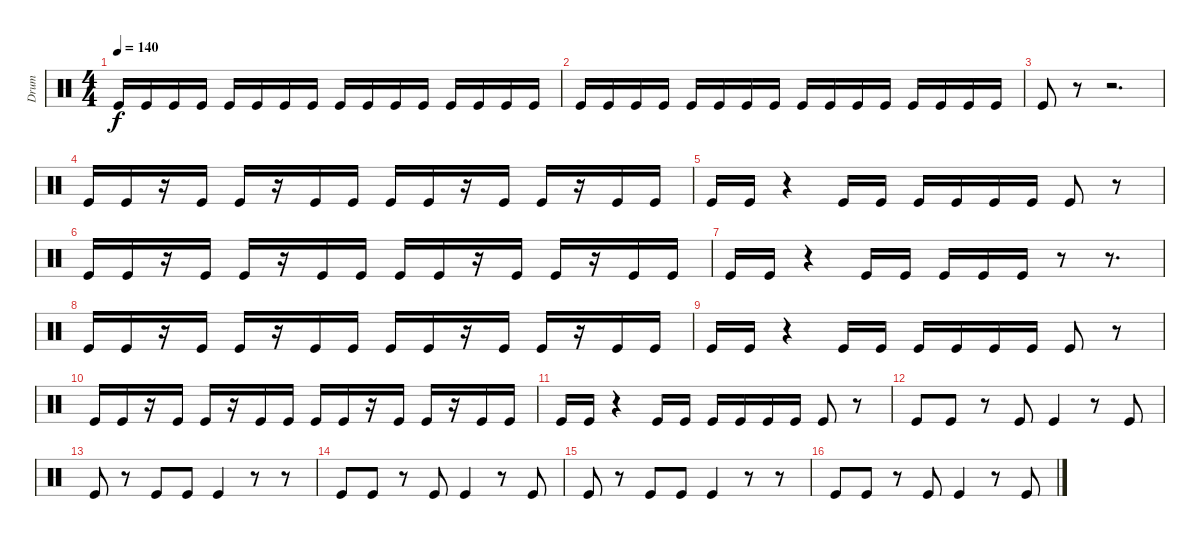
\track ("Drum" "Drum") {instrument percussion}
\staff {score}
\articulation defaults
\ts (4 4)
\tempo 140
\clef neutral
\ks c "Kick (hit)".16{dy f} "Kick (hit)".16 "Kick (hit)".16 "Kick (hit)".16 "Kick (hit)".16 "Kick (hit)".16 "Kick (hit)".16 "Kick (hit)".16 "Kick (hit)".16 "Kick (hit)".16 "Kick (hit)".16 "Kick (hit)".16 "Kick (hit)".16 "Kick (hit)".16 "Kick (hit)".16 "Kick (hit)".16
|
"Kick (hit)".16 "Kick (hit)".16 "Kick (hit)".16 "Kick (hit)".16 "Kick (hit)".16 "Kick (hit)".16 "Kick (hit)".16 "Kick (hit)".16 "Kick (hit)".16 "Kick (hit)".16 "Kick (hit)".16 "Kick (hit)".16 "Kick (hit)".16 "Kick (hit)".16 "Kick (hit)".16 "Kick (hit)".16 |
"Kick (hit)".8 r.8 r.2{d} |
"Kick (hit)".16 "Kick (hit)".16 r.16 "Kick (hit)".16 "Kick (hit)".16 r.16 "Kick (hit)".16 "Kick (hit)".16 "Kick (hit)".16 "Kick (hit)".16 r.16 "Kick (hit)".16 "Kick (hit)".16 r.16 "Kick (hit)".16 "Kick (hit)".16 |
"Kick (hit)".16 "Kick (hit)".16 r.4 "Kick (hit)".16 "Kick (hit)".16 "Kick (hit)".16 "Kick (hit)".16 "Kick (hit)".16 "Kick (hit)".16 "Kick (hit)".8 r.8 |
"Kick (hit)".16 "Kick (hit)".16 r.16 "Kick (hit)".16 "Kick (hit)".16 r.16 "Kick (hit)".16 "Kick (hit)".16 "Kick (hit)".16 "Kick (hit)".16 r.16 "Kick (hit)".16 "Kick (hit)".16 r.16 "Kick (hit)".16 "Kick (hit)".16 |
"Kick (hit)".16 "Kick (hit)".16 r.4 "Kick (hit)".16 "Kick (hit)".16 "Kick (hit)".16 "Kick (hit)".16 "Kick (hit)".16 r.8 r.8{d} |
"Kick (hit)".16 "Kick (hit)".16 r.16 "Kick (hit)".16 "Kick (hit)".16 r.16 "Kick (hit)".16 "Kick (hit)".16 "Kick (hit)".16 "Kick (hit)".16 r.16 "Kick (hit)".16 "Kick (hit)".16 r.16 "Kick (hit)".16 "Kick (hit)".16 |
"Kick (hit)".16 "Kick (hit)".16 r.4 "Kick (hit)".16 "Kick (hit)".16 "Kick (hit)".16 "Kick (hit)".16 "Kick (hit)".16 "Kick (hit)".16 "Kick (hit)".8 r.8 |
"Kick (hit)".16 "Kick (hit)".16 r.16 "Kick (hit)".16 "Kick (hit)".16 r.16 "Kick (hit)".16 "Kick (hit)".16 "Kick (hit)".16 "Kick (hit)".16 r.16 "Kick (hit)".16 "Kick (hit)".16 r.16 "Kick (hit)".16 "Kick (hit)".16 |
"Kick (hit)".16 "Kick (hit)".16 r.4 "Kick (hit)".16 "Kick (hit)".16 "Kick (hit)".16 "Kick (hit)".16 "Kick (hit)".16 "Kick (hit)".16 "Kick (hit)".8 r.8 |
"Kick (hit)".8 "Kick (hit)".8 r.8 "Kick (hit)".8 "Kick (hit)".4 r.8 "Kick (hit)".8 |
"Kick (hit)".8 r.8 "Kick (hit)".8 "Kick (hit)".8 "Kick (hit)".4 r.8 r.8 |
"Kick (hit)".8 "Kick (hit)".8 r.8 "Kick (hit)".8 "Kick (hit)".4 r.8 "Kick (hit)".8 |
"Kick (hit)".8 r.8 "Kick (hit)".8 "Kick (hit)".8 "Kick (hit)".4 r.8 r.8 |
"Kick (hit)".8 "Kick (hit)".8 r.8 "Kick (hit)".8 "Kick (hit)".4 r.8 "Kick (hit)".8
